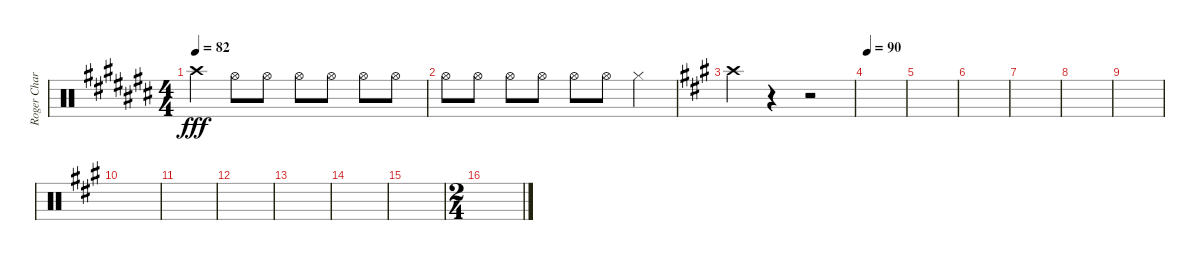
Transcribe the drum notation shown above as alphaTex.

\track ("Roger Charlet" "Roger Char") {instrument percussion}
\staff {score}
\articulation defaults
\ts (4 4)
\tempo 82
\clef neutral
\ks c# "Crash high (hit)".4{dy fff} "Hi-Hat (open)".8 "Hi-Hat (open)".8 "Hi-Hat (open)".8 "Hi-Hat (open)".8 "Hi-Hat (open)".8 "Hi-Hat (open)".8
|
"Hi-Hat (open)".8 "Hi-Hat (open)".8 "Hi-Hat (open)".8 "Hi-Hat (open)".8 "Hi-Hat (open)".8 "Hi-Hat (open)".8 "Hi-Hat (closed)".4 |
\ks a "Crash high (hit)".4
r.4 r.2 |
\tempo 90
|
|
|
|
|
|
|
|
|
|
|
|
\ts (2 4)
